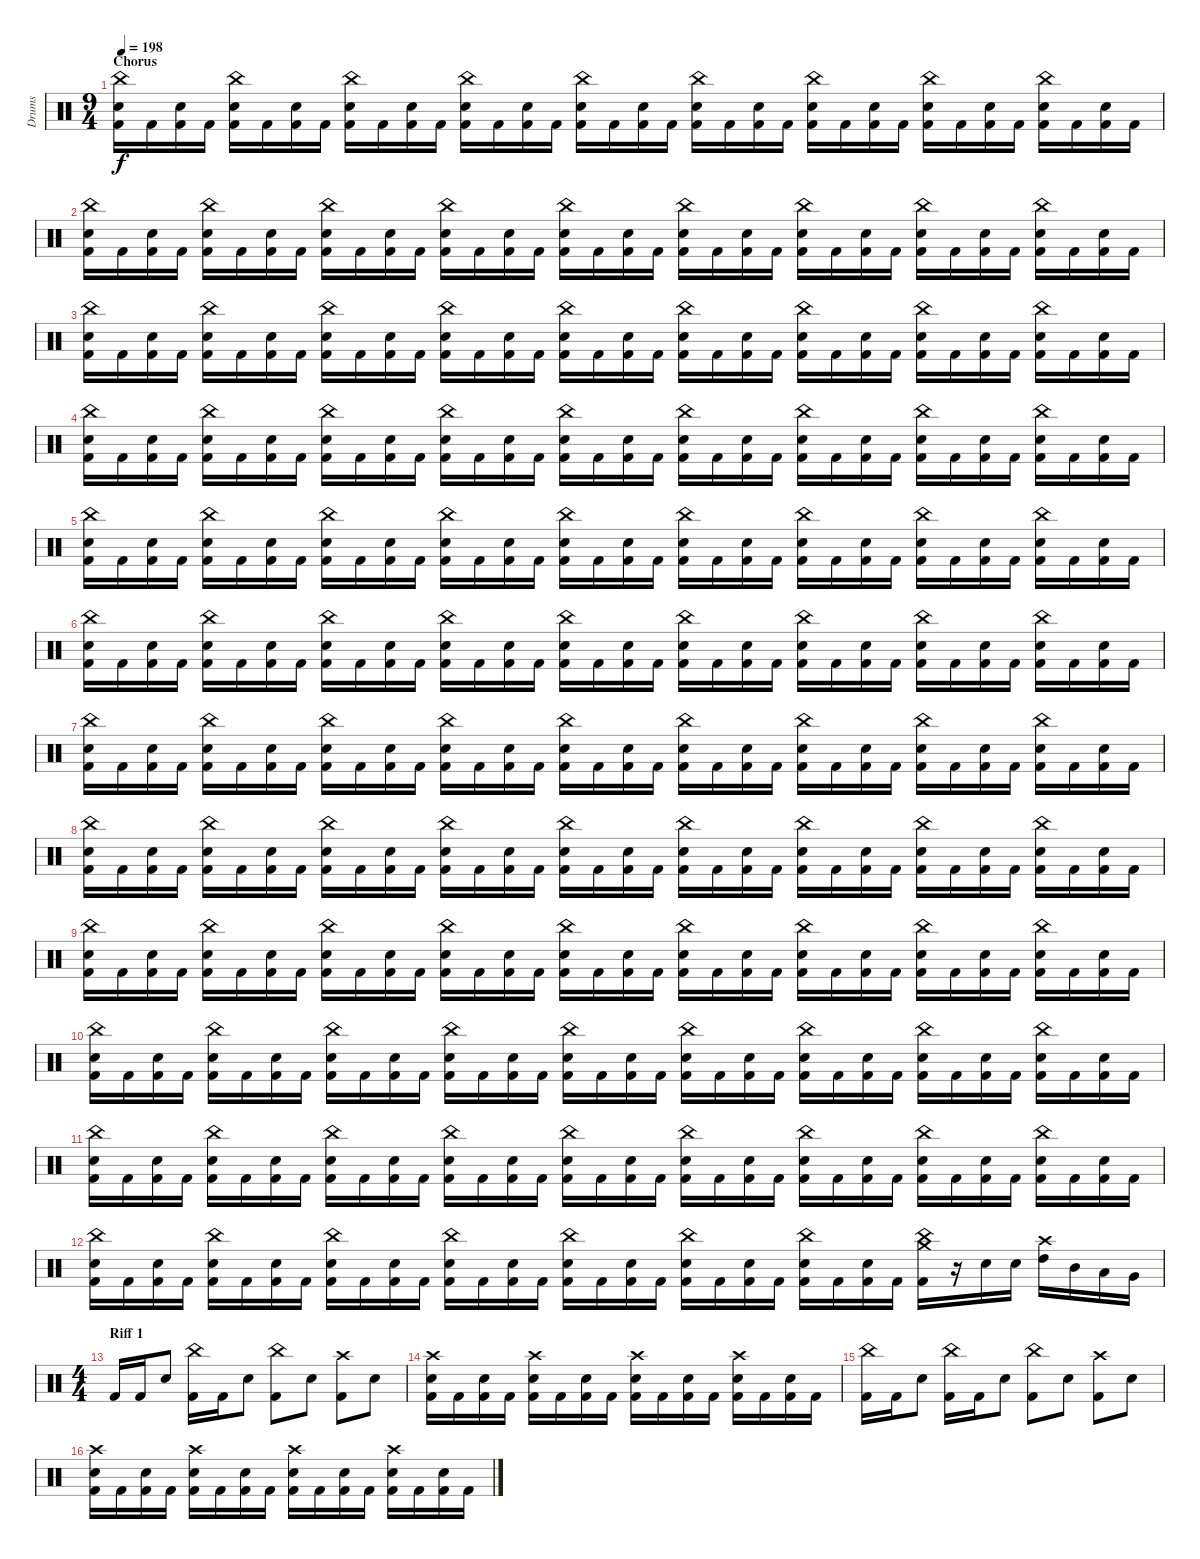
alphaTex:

\track ("Drums" "Drums") {instrument percussion}
\staff {score}
\articulation defaults
\ts (9 4)
\section ("" "Chorus")
\tempo 198
\clef neutral
\ks c
("Kick (hit) 2" "Snare (hit) 2" "China (hit)").16{dy f} "Kick (hit) 2".16 ("Kick (hit) 2" "Snare (hit) 2").16 "Kick (hit) 2".16 ("Kick (hit) 2" "Snare (hit) 2" "China (hit)").16 "Kick (hit) 2".16 ("Kick (hit) 2" "Snare (hit) 2").16 "Kick (hit) 2".16 ("Kick (hit) 2" "Snare (hit) 2" "China (hit)").16 "Kick (hit) 2".16 ("Kick (hit) 2" "Snare (hit) 2").16 "Kick (hit) 2".16 ("Kick (hit) 2" "Snare (hit) 2" "China (hit)").16 "Kick (hit) 2".16 ("Kick (hit) 2" "Snare (hit) 2").16 "Kick (hit) 2".16 ("Kick (hit) 2" "Snare (hit) 2" "China (hit)").16 "Kick (hit) 2".16 ("Kick (hit) 2" "Snare (hit) 2").16 "Kick (hit) 2".16 ("Kick (hit) 2" "Snare (hit) 2" "China (hit)").16 "Kick (hit) 2".16 ("Kick (hit) 2" "Snare (hit) 2").16 "Kick (hit) 2".16 ("Kick (hit) 2" "Snare (hit) 2" "China (hit)").16 "Kick (hit) 2".16 ("Kick (hit) 2" "Snare (hit) 2").16 "Kick (hit) 2".16 ("Kick (hit) 2" "Snare (hit) 2" "China (hit)").16 "Kick (hit) 2".16 ("Kick (hit) 2" "Snare (hit) 2").16 "Kick (hit) 2".16 ("Kick (hit) 2" "Snare (hit) 2" "China (hit)").16 "Kick (hit) 2".16 ("Kick (hit) 2" "Snare (hit) 2").16 "Kick (hit) 2".16 |
("Kick (hit) 2" "Snare (hit) 2" "China (hit)").16 "Kick (hit) 2".16 ("Kick (hit) 2" "Snare (hit) 2").16 "Kick (hit) 2".16 ("Kick (hit) 2" "Snare (hit) 2" "China (hit)").16 "Kick (hit) 2".16 ("Kick (hit) 2" "Snare (hit) 2").16 "Kick (hit) 2".16 ("Kick (hit) 2" "Snare (hit) 2" "China (hit)").16 "Kick (hit) 2".16 ("Kick (hit) 2" "Snare (hit) 2").16 "Kick (hit) 2".16 ("Kick (hit) 2" "Snare (hit) 2" "China (hit)").16 "Kick (hit) 2".16 ("Kick (hit) 2" "Snare (hit) 2").16 "Kick (hit) 2".16 ("Kick (hit) 2" "Snare (hit) 2" "China (hit)").16 "Kick (hit) 2".16 ("Kick (hit) 2" "Snare (hit) 2").16 "Kick (hit) 2".16 ("Kick (hit) 2" "Snare (hit) 2" "China (hit)").16 "Kick (hit) 2".16 ("Kick (hit) 2" "Snare (hit) 2").16 "Kick (hit) 2".16 ("Kick (hit) 2" "Snare (hit) 2" "China (hit)").16 "Kick (hit) 2".16 ("Kick (hit) 2" "Snare (hit) 2").16 "Kick (hit) 2".16 ("Kick (hit) 2" "Snare (hit) 2" "China (hit)").16 "Kick (hit) 2".16 ("Kick (hit) 2" "Snare (hit) 2").16 "Kick (hit) 2".16 ("Kick (hit) 2" "Snare (hit) 2" "China (hit)").16 "Kick (hit) 2".16 ("Kick (hit) 2" "Snare (hit) 2").16 "Kick (hit) 2".16 |
("Kick (hit) 2" "Snare (hit) 2" "China (hit)").16 "Kick (hit) 2".16 ("Kick (hit) 2" "Snare (hit) 2").16 "Kick (hit) 2".16 ("Kick (hit) 2" "Snare (hit) 2" "China (hit)").16 "Kick (hit) 2".16 ("Kick (hit) 2" "Snare (hit) 2").16 "Kick (hit) 2".16 ("Kick (hit) 2" "Snare (hit) 2" "China (hit)").16 "Kick (hit) 2".16 ("Kick (hit) 2" "Snare (hit) 2").16 "Kick (hit) 2".16 ("Kick (hit) 2" "Snare (hit) 2" "China (hit)").16 "Kick (hit) 2".16 ("Kick (hit) 2" "Snare (hit) 2").16 "Kick (hit) 2".16 ("Kick (hit) 2" "Snare (hit) 2" "China (hit)").16 "Kick (hit) 2".16 ("Kick (hit) 2" "Snare (hit) 2").16 "Kick (hit) 2".16 ("Kick (hit) 2" "Snare (hit) 2" "China (hit)").16 "Kick (hit) 2".16 ("Kick (hit) 2" "Snare (hit) 2").16 "Kick (hit) 2".16 ("Kick (hit) 2" "Snare (hit) 2" "China (hit)").16 "Kick (hit) 2".16 ("Kick (hit) 2" "Snare (hit) 2").16 "Kick (hit) 2".16 ("Kick (hit) 2" "Snare (hit) 2" "China (hit)").16 "Kick (hit) 2".16 ("Kick (hit) 2" "Snare (hit) 2").16 "Kick (hit) 2".16 ("Kick (hit) 2" "Snare (hit) 2" "China (hit)").16 "Kick (hit) 2".16 ("Kick (hit) 2" "Snare (hit) 2").16 "Kick (hit) 2".16 |
("Kick (hit) 2" "Snare (hit) 2" "China (hit)").16 "Kick (hit) 2".16 ("Kick (hit) 2" "Snare (hit) 2").16 "Kick (hit) 2".16 ("Kick (hit) 2" "Snare (hit) 2" "China (hit)").16 "Kick (hit) 2".16 ("Kick (hit) 2" "Snare (hit) 2").16 "Kick (hit) 2".16 ("Kick (hit) 2" "Snare (hit) 2" "China (hit)").16 "Kick (hit) 2".16 ("Kick (hit) 2" "Snare (hit) 2").16 "Kick (hit) 2".16 ("Kick (hit) 2" "Snare (hit) 2" "China (hit)").16 "Kick (hit) 2".16 ("Kick (hit) 2" "Snare (hit) 2").16 "Kick (hit) 2".16 ("Kick (hit) 2" "Snare (hit) 2" "China (hit)").16 "Kick (hit) 2".16 ("Kick (hit) 2" "Snare (hit) 2").16 "Kick (hit) 2".16 ("Kick (hit) 2" "Snare (hit) 2" "China (hit)").16 "Kick (hit) 2".16 ("Kick (hit) 2" "Snare (hit) 2").16 "Kick (hit) 2".16 ("Kick (hit) 2" "Snare (hit) 2" "China (hit)").16 "Kick (hit) 2".16 ("Kick (hit) 2" "Snare (hit) 2").16 "Kick (hit) 2".16 ("Kick (hit) 2" "Snare (hit) 2" "China (hit)").16 "Kick (hit) 2".16 ("Kick (hit) 2" "Snare (hit) 2").16 "Kick (hit) 2".16 ("Kick (hit) 2" "Snare (hit) 2" "China (hit)").16 "Kick (hit) 2".16 ("Kick (hit) 2" "Snare (hit) 2").16 "Kick (hit) 2".16 |
("Kick (hit) 2" "Snare (hit) 2" "China (hit)").16 "Kick (hit) 2".16 ("Kick (hit) 2" "Snare (hit) 2").16 "Kick (hit) 2".16 ("Kick (hit) 2" "Snare (hit) 2" "China (hit)").16 "Kick (hit) 2".16 ("Kick (hit) 2" "Snare (hit) 2").16 "Kick (hit) 2".16 ("Kick (hit) 2" "Snare (hit) 2" "China (hit)").16 "Kick (hit) 2".16 ("Kick (hit) 2" "Snare (hit) 2").16 "Kick (hit) 2".16 ("Kick (hit) 2" "Snare (hit) 2" "China (hit)").16 "Kick (hit) 2".16 ("Kick (hit) 2" "Snare (hit) 2").16 "Kick (hit) 2".16 ("Kick (hit) 2" "Snare (hit) 2" "China (hit)").16 "Kick (hit) 2".16 ("Kick (hit) 2" "Snare (hit) 2").16 "Kick (hit) 2".16 ("Kick (hit) 2" "Snare (hit) 2" "China (hit)").16 "Kick (hit) 2".16 ("Kick (hit) 2" "Snare (hit) 2").16 "Kick (hit) 2".16 ("Kick (hit) 2" "Snare (hit) 2" "China (hit)").16 "Kick (hit) 2".16 ("Kick (hit) 2" "Snare (hit) 2").16 "Kick (hit) 2".16 ("Kick (hit) 2" "Snare (hit) 2" "China (hit)").16 "Kick (hit) 2".16 ("Kick (hit) 2" "Snare (hit) 2").16 "Kick (hit) 2".16 ("Kick (hit) 2" "Snare (hit) 2" "China (hit)").16 "Kick (hit) 2".16 ("Kick (hit) 2" "Snare (hit) 2").16 "Kick (hit) 2".16 |
("Kick (hit) 2" "Snare (hit) 2" "China (hit)").16 "Kick (hit) 2".16 ("Kick (hit) 2" "Snare (hit) 2").16 "Kick (hit) 2".16 ("Kick (hit) 2" "Snare (hit) 2" "China (hit)").16 "Kick (hit) 2".16 ("Kick (hit) 2" "Snare (hit) 2").16 "Kick (hit) 2".16 ("Kick (hit) 2" "Snare (hit) 2" "China (hit)").16 "Kick (hit) 2".16 ("Kick (hit) 2" "Snare (hit) 2").16 "Kick (hit) 2".16 ("Kick (hit) 2" "Snare (hit) 2" "China (hit)").16 "Kick (hit) 2".16 ("Kick (hit) 2" "Snare (hit) 2").16 "Kick (hit) 2".16 ("Kick (hit) 2" "Snare (hit) 2" "China (hit)").16 "Kick (hit) 2".16 ("Kick (hit) 2" "Snare (hit) 2").16 "Kick (hit) 2".16 ("Kick (hit) 2" "Snare (hit) 2" "China (hit)").16 "Kick (hit) 2".16 ("Kick (hit) 2" "Snare (hit) 2").16 "Kick (hit) 2".16 ("Kick (hit) 2" "Snare (hit) 2" "China (hit)").16 "Kick (hit) 2".16 ("Kick (hit) 2" "Snare (hit) 2").16 "Kick (hit) 2".16 ("Kick (hit) 2" "Snare (hit) 2" "China (hit)").16 "Kick (hit) 2".16 ("Kick (hit) 2" "Snare (hit) 2").16 "Kick (hit) 2".16 ("Kick (hit) 2" "Snare (hit) 2" "China (hit)").16 "Kick (hit) 2".16 ("Kick (hit) 2" "Snare (hit) 2").16 "Kick (hit) 2".16 |
("Kick (hit) 2" "Snare (hit) 2" "China (hit)").16 "Kick (hit) 2".16 ("Kick (hit) 2" "Snare (hit) 2").16 "Kick (hit) 2".16 ("Kick (hit) 2" "Snare (hit) 2" "China (hit)").16 "Kick (hit) 2".16 ("Kick (hit) 2" "Snare (hit) 2").16 "Kick (hit) 2".16 ("Kick (hit) 2" "Snare (hit) 2" "China (hit)").16 "Kick (hit) 2".16 ("Kick (hit) 2" "Snare (hit) 2").16 "Kick (hit) 2".16 ("Kick (hit) 2" "Snare (hit) 2" "China (hit)").16 "Kick (hit) 2".16 ("Kick (hit) 2" "Snare (hit) 2").16 "Kick (hit) 2".16 ("Kick (hit) 2" "Snare (hit) 2" "China (hit)").16 "Kick (hit) 2".16 ("Kick (hit) 2" "Snare (hit) 2").16 "Kick (hit) 2".16 ("Kick (hit) 2" "Snare (hit) 2" "China (hit)").16 "Kick (hit) 2".16 ("Kick (hit) 2" "Snare (hit) 2").16 "Kick (hit) 2".16 ("Kick (hit) 2" "Snare (hit) 2" "China (hit)").16 "Kick (hit) 2".16 ("Kick (hit) 2" "Snare (hit) 2").16 "Kick (hit) 2".16 ("Kick (hit) 2" "Snare (hit) 2" "China (hit)").16 "Kick (hit) 2".16 ("Kick (hit) 2" "Snare (hit) 2").16 "Kick (hit) 2".16 ("Kick (hit) 2" "Snare (hit) 2" "China (hit)").16 "Kick (hit) 2".16 ("Kick (hit) 2" "Snare (hit) 2").16 "Kick (hit) 2".16 |
("Kick (hit) 2" "Snare (hit) 2" "China (hit)").16 "Kick (hit) 2".16 ("Kick (hit) 2" "Snare (hit) 2").16 "Kick (hit) 2".16 ("Kick (hit) 2" "Snare (hit) 2" "China (hit)").16 "Kick (hit) 2".16 ("Kick (hit) 2" "Snare (hit) 2").16 "Kick (hit) 2".16 ("Kick (hit) 2" "Snare (hit) 2" "China (hit)").16 "Kick (hit) 2".16 ("Kick (hit) 2" "Snare (hit) 2").16 "Kick (hit) 2".16 ("Kick (hit) 2" "Snare (hit) 2" "China (hit)").16 "Kick (hit) 2".16 ("Kick (hit) 2" "Snare (hit) 2").16 "Kick (hit) 2".16 ("Kick (hit) 2" "Snare (hit) 2" "China (hit)").16 "Kick (hit) 2".16 ("Kick (hit) 2" "Snare (hit) 2").16 "Kick (hit) 2".16 ("Kick (hit) 2" "Snare (hit) 2" "China (hit)").16 "Kick (hit) 2".16 ("Kick (hit) 2" "Snare (hit) 2").16 "Kick (hit) 2".16 ("Kick (hit) 2" "Snare (hit) 2" "China (hit)").16 "Kick (hit) 2".16 ("Kick (hit) 2" "Snare (hit) 2").16 "Kick (hit) 2".16 ("Kick (hit) 2" "Snare (hit) 2" "China (hit)").16 "Kick (hit) 2".16 ("Kick (hit) 2" "Snare (hit) 2").16 "Kick (hit) 2".16 ("Kick (hit) 2" "Snare (hit) 2" "China (hit)").16 "Kick (hit) 2".16 ("Kick (hit) 2" "Snare (hit) 2").16 "Kick (hit) 2".16 |
("Kick (hit) 2" "Snare (hit) 2" "China (hit)").16 "Kick (hit) 2".16 ("Kick (hit) 2" "Snare (hit) 2").16 "Kick (hit) 2".16 ("Kick (hit) 2" "Snare (hit) 2" "China (hit)").16 "Kick (hit) 2".16 ("Kick (hit) 2" "Snare (hit) 2").16 "Kick (hit) 2".16 ("Kick (hit) 2" "Snare (hit) 2" "China (hit)").16 "Kick (hit) 2".16 ("Kick (hit) 2" "Snare (hit) 2").16 "Kick (hit) 2".16 ("Kick (hit) 2" "Snare (hit) 2" "China (hit)").16 "Kick (hit) 2".16 ("Kick (hit) 2" "Snare (hit) 2").16 "Kick (hit) 2".16 ("Kick (hit) 2" "Snare (hit) 2" "China (hit)").16 "Kick (hit) 2".16 ("Kick (hit) 2" "Snare (hit) 2").16 "Kick (hit) 2".16 ("Kick (hit) 2" "Snare (hit) 2" "China (hit)").16 "Kick (hit) 2".16 ("Kick (hit) 2" "Snare (hit) 2").16 "Kick (hit) 2".16 ("Kick (hit) 2" "Snare (hit) 2" "China (hit)").16 "Kick (hit) 2".16 ("Kick (hit) 2" "Snare (hit) 2").16 "Kick (hit) 2".16 ("Kick (hit) 2" "Snare (hit) 2" "China (hit)").16 "Kick (hit) 2".16 ("Kick (hit) 2" "Snare (hit) 2").16 "Kick (hit) 2".16 ("Kick (hit) 2" "Snare (hit) 2" "China (hit)").16 "Kick (hit) 2".16 ("Kick (hit) 2" "Snare (hit) 2").16 "Kick (hit) 2".16 |
("Kick (hit) 2" "Snare (hit) 2" "China (hit)").16 "Kick (hit) 2".16 ("Kick (hit) 2" "Snare (hit) 2").16 "Kick (hit) 2".16 ("Kick (hit) 2" "Snare (hit) 2" "China (hit)").16 "Kick (hit) 2".16 ("Kick (hit) 2" "Snare (hit) 2").16 "Kick (hit) 2".16 ("Kick (hit) 2" "Snare (hit) 2" "China (hit)").16 "Kick (hit) 2".16 ("Kick (hit) 2" "Snare (hit) 2").16 "Kick (hit) 2".16 ("Kick (hit) 2" "Snare (hit) 2" "China (hit)").16 "Kick (hit) 2".16 ("Kick (hit) 2" "Snare (hit) 2").16 "Kick (hit) 2".16 ("Kick (hit) 2" "Snare (hit) 2" "China (hit)").16 "Kick (hit) 2".16 ("Kick (hit) 2" "Snare (hit) 2").16 "Kick (hit) 2".16 ("Kick (hit) 2" "Snare (hit) 2" "China (hit)").16 "Kick (hit) 2".16 ("Kick (hit) 2" "Snare (hit) 2").16 "Kick (hit) 2".16 ("Kick (hit) 2" "Snare (hit) 2" "China (hit)").16 "Kick (hit) 2".16 ("Kick (hit) 2" "Snare (hit) 2").16 "Kick (hit) 2".16 ("Kick (hit) 2" "Snare (hit) 2" "China (hit)").16 "Kick (hit) 2".16 ("Kick (hit) 2" "Snare (hit) 2").16 "Kick (hit) 2".16 ("Kick (hit) 2" "Snare (hit) 2" "China (hit)").16 "Kick (hit) 2".16 ("Kick (hit) 2" "Snare (hit) 2").16 "Kick (hit) 2".16 |
("Kick (hit) 2" "Snare (hit) 2" "China (hit)").16 "Kick (hit) 2".16 ("Kick (hit) 2" "Snare (hit) 2").16 "Kick (hit) 2".16 ("Kick (hit) 2" "Snare (hit) 2" "China (hit)").16 "Kick (hit) 2".16 ("Kick (hit) 2" "Snare (hit) 2").16 "Kick (hit) 2".16 ("Kick (hit) 2" "Snare (hit) 2" "China (hit)").16 "Kick (hit) 2".16 ("Kick (hit) 2" "Snare (hit) 2").16 "Kick (hit) 2".16 ("Kick (hit) 2" "Snare (hit) 2" "China (hit)").16 "Kick (hit) 2".16 ("Kick (hit) 2" "Snare (hit) 2").16 "Kick (hit) 2".16 ("Kick (hit) 2" "Snare (hit) 2" "China (hit)").16 "Kick (hit) 2".16 ("Kick (hit) 2" "Snare (hit) 2").16 "Kick (hit) 2".16 ("Kick (hit) 2" "Snare (hit) 2" "China (hit)").16 "Kick (hit) 2".16 ("Kick (hit) 2" "Snare (hit) 2").16 "Kick (hit) 2".16 ("Kick (hit) 2" "Snare (hit) 2" "China (hit)").16 "Kick (hit) 2".16 ("Kick (hit) 2" "Snare (hit) 2").16 "Kick (hit) 2".16 ("Kick (hit) 2" "Snare (hit) 2" "China (hit)").16 "Kick (hit) 2".16 ("Kick (hit) 2" "Snare (hit) 2").16 "Kick (hit) 2".16 ("Kick (hit) 2" "Snare (hit) 2" "China (hit)").16 "Kick (hit) 2".16 ("Kick (hit) 2" "Snare (hit) 2").16 "Kick (hit) 2".16 |
("Kick (hit) 2" "Snare (hit) 2" "China (hit)").16 "Kick (hit) 2".16 ("Kick (hit) 2" "Snare (hit) 2").16 "Kick (hit) 2".16 ("Kick (hit) 2" "Snare (hit) 2" "China (hit)").16 "Kick (hit) 2".16 ("Kick (hit) 2" "Snare (hit) 2").16 "Kick (hit) 2".16 ("Kick (hit) 2" "Snare (hit) 2" "China (hit)").16 "Kick (hit) 2".16 ("Kick (hit) 2" "Snare (hit) 2").16 "Kick (hit) 2".16 ("Kick (hit) 2" "Snare (hit) 2" "China (hit)").16 "Kick (hit) 2".16 ("Kick (hit) 2" "Snare (hit) 2").16 "Kick (hit) 2".16 ("Kick (hit) 2" "Snare (hit) 2" "China (hit)").16 "Kick (hit) 2".16 ("Kick (hit) 2" "Snare (hit) 2").16 "Kick (hit) 2".16 ("Kick (hit) 2" "Snare (hit) 2" "China (hit)").16 "Kick (hit) 2".16 ("Kick (hit) 2" "Snare (hit) 2").16 "Kick (hit) 2".16 ("Kick (hit) 2" "Snare (hit) 2" "China (hit)").16 "Kick (hit) 2".16 ("Kick (hit) 2" "Snare (hit) 2").16 "Kick (hit) 2".16 ("Kick (hit) 2" "China (hit)" "Crash medium (hit)").16 r.16 "Snare (hit) 2".16 "Snare (hit) 2".16 ("High Tom (hit)" "Crash high (hit)").16 "Mid Tom (hit)".16 "Low Tom (hit)".16 "Very Low Tom (hit)".16 |
\ts (4 4)
\section ("" "Riff 1")
"Kick (hit) 2".16 "Kick (hit) 2".16 "Snare (hit) 2".8 ("Kick (hit) 2" "China (hit)").16 "Kick (hit) 2".16 "Snare (hit) 2".8 ("Kick (hit) 2" "China (hit)").8 "Snare (hit) 2".8 ("Kick (hit) 2" "Crash high (hit)").8 "Snare (hit) 2".8 |
("Kick (hit) 2" "Snare (hit) 2" "Crash high (hit)").16 "Kick (hit) 2".16 ("Kick (hit) 2" "Snare (hit) 2").16 "Kick (hit) 2".16 ("Kick (hit) 2" "Snare (hit) 2" "Crash high (hit)").16 "Kick (hit) 2".16 ("Kick (hit) 2" "Snare (hit) 2").16 "Kick (hit) 2".16 ("Kick (hit) 2" "Snare (hit) 2" "Crash high (hit)").16 "Kick (hit) 2".16 ("Kick (hit) 2" "Snare (hit) 2").16 "Kick (hit) 2".16 ("Kick (hit) 2" "Snare (hit) 2" "Crash high (hit)").16 "Kick (hit) 2".16 ("Kick (hit) 2" "Snare (hit) 2").16 "Kick (hit) 2".16 |
("Kick (hit) 2" "China (hit)").16 "Kick (hit) 2".16 "Snare (hit) 2".8 ("Kick (hit) 2" "China (hit)").16 "Kick (hit) 2".16 "Snare (hit) 2".8 ("Kick (hit) 2" "China (hit)").8 "Snare (hit) 2".8 ("Kick (hit) 2" "Crash high (hit)").8 "Snare (hit) 2".8 |
("Kick (hit) 2" "Snare (hit) 2" "Crash high (hit)").16 "Kick (hit) 2".16 ("Kick (hit) 2" "Snare (hit) 2").16 "Kick (hit) 2".16 ("Kick (hit) 2" "Snare (hit) 2" "Crash high (hit)").16 "Kick (hit) 2".16 ("Kick (hit) 2" "Snare (hit) 2").16 "Kick (hit) 2".16 ("Kick (hit) 2" "Snare (hit) 2" "Crash high (hit)").16 "Kick (hit) 2".16 ("Kick (hit) 2" "Snare (hit) 2").16 "Kick (hit) 2".16 ("Kick (hit) 2" "Snare (hit) 2" "Crash high (hit)").16 "Kick (hit) 2".16 ("Kick (hit) 2" "Snare (hit) 2").16 "Kick (hit) 2".16
